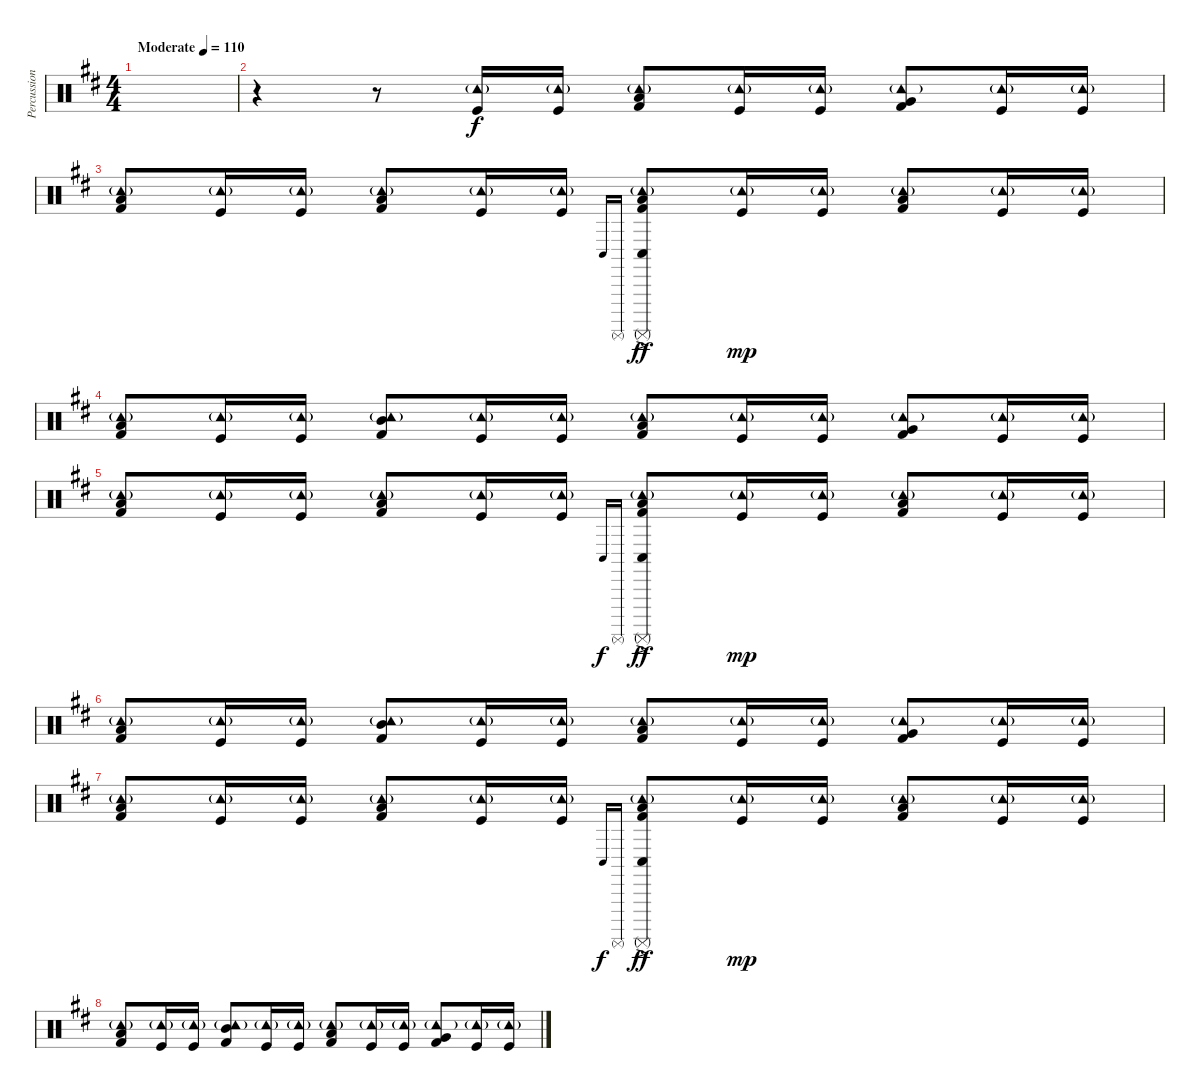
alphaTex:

\track ("Percussion" "Percussion") {instrument percussion}
\staff {score}
\articulation defaults
\ts (4 4)
\tempo (110 "Moderate")
\clef neutral
\ks d
|
r.4 r.8 ("Tambourine (hit)"{g} "Kick (hit)").16 ("Tambourine (hit)"{g} "Kick (hit)").16 ("Tambourine (hit)"{g} "Low Tom (hit)" "Kick (hit) 2").8 ("Tambourine (hit)"{g} "Kick (hit)").16 ("Tambourine (hit)"{g} "Kick (hit)").16 ("Tambourine (hit)"{g} "Very Low Tom (hit)" "Kick (hit) 2").8 ("Tambourine (hit)"{g} "Kick (hit)").16 ("Tambourine (hit)"{g} "Kick (hit)").16 |
("Tambourine (hit)"{g} "Low Floor Tom (hit)" "Kick (hit) 2").8 ("Tambourine (hit)"{g} "Kick (hit)").16 ("Tambourine (hit)"{g} "Kick (hit)").16 ("Tambourine (hit)"{g} "Low Tom (hit)" "Kick (hit) 2").8 ("Tambourine (hit)"{g} "Kick (hit)").16 ("Tambourine (hit)"{g} "Kick (hit)").16 "Conga low (hit)".16{gr onbeat dy f} "Surdo (mute)".16{gr onbeat} ("Tambourine (hit)"{g} "Conga low (hit)"{ac} "Surdo (mute)"{ac} "Low Floor Tom (hit)"{ac} "Kick (hit) 2").8{dy ff} ("Tambourine (hit)"{g} "Kick (hit)").16{dy mp} ("Tambourine (hit)"{g} "Kick (hit)").16 ("Tambourine (hit)"{g} "Low Floor Tom (hit)" "Kick (hit) 2").8 ("Tambourine (hit)"{g} "Kick (hit)").16 ("Tambourine (hit)"{g} "Kick (hit)").16 |
("Tambourine (hit)"{g} "Low Floor Tom (hit)" "Kick (hit) 2").8 ("Tambourine (hit)"{g} "Kick (hit)").16 ("Tambourine (hit)"{g} "Kick (hit)").16 ("Tambourine (hit)"{g} "Mid Tom (hit)" "Kick (hit) 2").8 ("Tambourine (hit)"{g} "Kick (hit)").16 ("Tambourine (hit)"{g} "Kick (hit)").16 ("Tambourine (hit)"{g} "Low Tom (hit)" "Kick (hit) 2").8 ("Tambourine (hit)"{g} "Kick (hit)").16 ("Tambourine (hit)"{g} "Kick (hit)").16 ("Tambourine (hit)"{g} "Very Low Tom (hit)" "Kick (hit) 2").8 ("Tambourine (hit)"{g} "Kick (hit)").16 ("Tambourine (hit)"{g} "Kick (hit)").16 |
("Tambourine (hit)"{g} "Low Floor Tom (hit)" "Kick (hit) 2").8 ("Tambourine (hit)"{g} "Kick (hit)").16 ("Tambourine (hit)"{g} "Kick (hit)").16 ("Tambourine (hit)"{g} "Low Tom (hit)" "Kick (hit) 2").8 ("Tambourine (hit)"{g} "Kick (hit)").16 ("Tambourine (hit)"{g} "Kick (hit)").16 "Conga low (hit)".16{gr onbeat dy f} "Surdo (mute)".16{gr onbeat} ("Tambourine (hit)"{g} "Conga low (hit)"{ac} "Surdo (mute)"{ac} "Low Floor Tom (hit)"{ac} "Kick (hit) 2").8{dy ff} ("Tambourine (hit)"{g} "Kick (hit)").16{dy mp} ("Tambourine (hit)"{g} "Kick (hit)").16 ("Tambourine (hit)"{g} "Low Floor Tom (hit)" "Kick (hit) 2").8 ("Tambourine (hit)"{g} "Kick (hit)").16 ("Tambourine (hit)"{g} "Kick (hit)").16 |
("Tambourine (hit)"{g} "Low Floor Tom (hit)" "Kick (hit) 2").8 ("Tambourine (hit)"{g} "Kick (hit)").16 ("Tambourine (hit)"{g} "Kick (hit)").16 ("Tambourine (hit)"{g} "Mid Tom (hit)" "Kick (hit) 2").8 ("Tambourine (hit)"{g} "Kick (hit)").16 ("Tambourine (hit)"{g} "Kick (hit)").16 ("Tambourine (hit)"{g} "Low Tom (hit)" "Kick (hit) 2").8 ("Tambourine (hit)"{g} "Kick (hit)").16 ("Tambourine (hit)"{g} "Kick (hit)").16 ("Tambourine (hit)"{g} "Very Low Tom (hit)" "Kick (hit) 2").8 ("Tambourine (hit)"{g} "Kick (hit)").16 ("Tambourine (hit)"{g} "Kick (hit)").16 |
("Tambourine (hit)"{g} "Low Floor Tom (hit)" "Kick (hit) 2").8 ("Tambourine (hit)"{g} "Kick (hit)").16 ("Tambourine (hit)"{g} "Kick (hit)").16 ("Tambourine (hit)"{g} "Low Tom (hit)" "Kick (hit) 2").8 ("Tambourine (hit)"{g} "Kick (hit)").16 ("Tambourine (hit)"{g} "Kick (hit)").16 "Conga low (hit)".16{gr onbeat dy f} "Surdo (mute)".16{gr onbeat} ("Tambourine (hit)"{g} "Conga low (hit)"{ac} "Surdo (mute)"{ac} "Low Floor Tom (hit)"{ac} "Kick (hit) 2").8{dy ff} ("Tambourine (hit)"{g} "Kick (hit)").16{dy mp} ("Tambourine (hit)"{g} "Kick (hit)").16 ("Tambourine (hit)"{g} "Low Floor Tom (hit)" "Kick (hit) 2").8 ("Tambourine (hit)"{g} "Kick (hit)").16 ("Tambourine (hit)"{g} "Kick (hit)").16 |
("Tambourine (hit)"{g} "Low Floor Tom (hit)" "Kick (hit) 2").8 ("Tambourine (hit)"{g} "Kick (hit)").16 ("Tambourine (hit)"{g} "Kick (hit)").16 ("Tambourine (hit)"{g} "Mid Tom (hit)" "Kick (hit) 2").8 ("Tambourine (hit)"{g} "Kick (hit)").16 ("Tambourine (hit)"{g} "Kick (hit)").16 ("Tambourine (hit)"{g} "Low Tom (hit)" "Kick (hit) 2").8 ("Tambourine (hit)"{g} "Kick (hit)").16 ("Tambourine (hit)"{g} "Kick (hit)").16 ("Tambourine (hit)"{g} "Very Low Tom (hit)" "Kick (hit) 2").8 ("Tambourine (hit)"{g} "Kick (hit)").16 ("Tambourine (hit)"{g} "Kick (hit)").16
